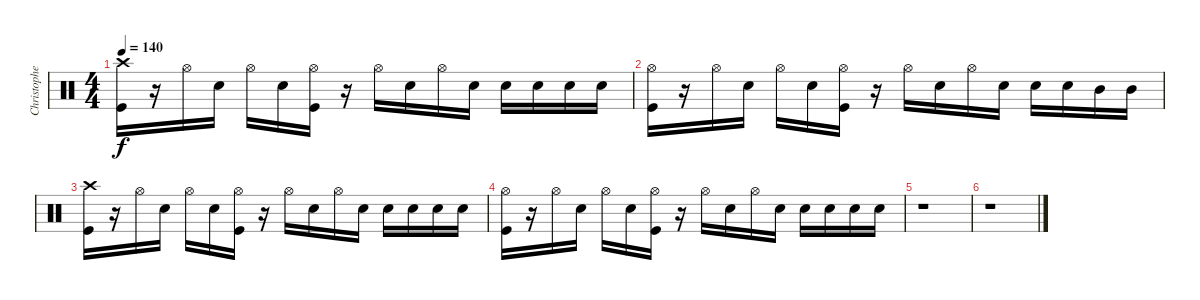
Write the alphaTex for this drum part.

\track ("Christopher - Drums" "Christophe") {instrument percussion}
\staff {score}
\articulation defaults
\ts (4 4)
\tempo 140
\clef neutral
\ks c
("Crash high (hit)" "Kick (hit)").16{dy f} r.16 "Hi-Hat (open)".16 "Snare (hit) 2".16 "Hi-Hat (open)".16 "Snare (hit) 2".16 ("Hi-Hat (open)" "Kick (hit)").16 r.16 "Hi-Hat (open)".16 "Snare (hit) 2".16 "Hi-Hat (open)".16 "Snare (hit) 2".16 "Snare (hit) 2".16 "Snare (hit) 2".16 "Snare (hit) 2".16 "Snare (hit) 2".16 |
("Hi-Hat (open)" "Kick (hit)").16 r.16 "Hi-Hat (open)".16 "Snare (hit) 2".16 "Hi-Hat (open)".16 "Snare (hit) 2".16 ("Hi-Hat (open)" "Kick (hit)").16 r.16 "Hi-Hat (open)".16 "Snare (hit) 2".16 "Hi-Hat (open)".16 "Snare (hit) 2".16 "Snare (hit) 2".16 "Snare (hit) 2".16 "Mid Tom (hit)".16 "Mid Tom (hit)".16 |
("Crash high (hit)" "Kick (hit)").16 r.16 "Hi-Hat (open)".16 "Snare (hit) 2".16 "Hi-Hat (open)".16 "Snare (hit) 2".16 ("Hi-Hat (open)" "Kick (hit)").16 r.16 "Hi-Hat (open)".16 "Snare (hit) 2".16 "Hi-Hat (open)".16 "Snare (hit) 2".16 "Snare (hit) 2".16 "Snare (hit) 2".16 "Snare (hit) 2".16 "Snare (hit) 2".16 |
("Hi-Hat (open)" "Kick (hit)").16 r.16 "Hi-Hat (open)".16 "Snare (hit) 2".16 "Hi-Hat (open)".16 "Snare (hit) 2".16 ("Hi-Hat (open)" "Kick (hit)").16 r.16 "Hi-Hat (open)".16 "Snare (hit) 2".16 "Hi-Hat (open)".16 "Snare (hit) 2".16 "Snare (hit) 2".16 "Snare (hit) 2".16 "Snare (hit) 2".16 "Snare (hit) 2".16 |
r.1 |
r.1
